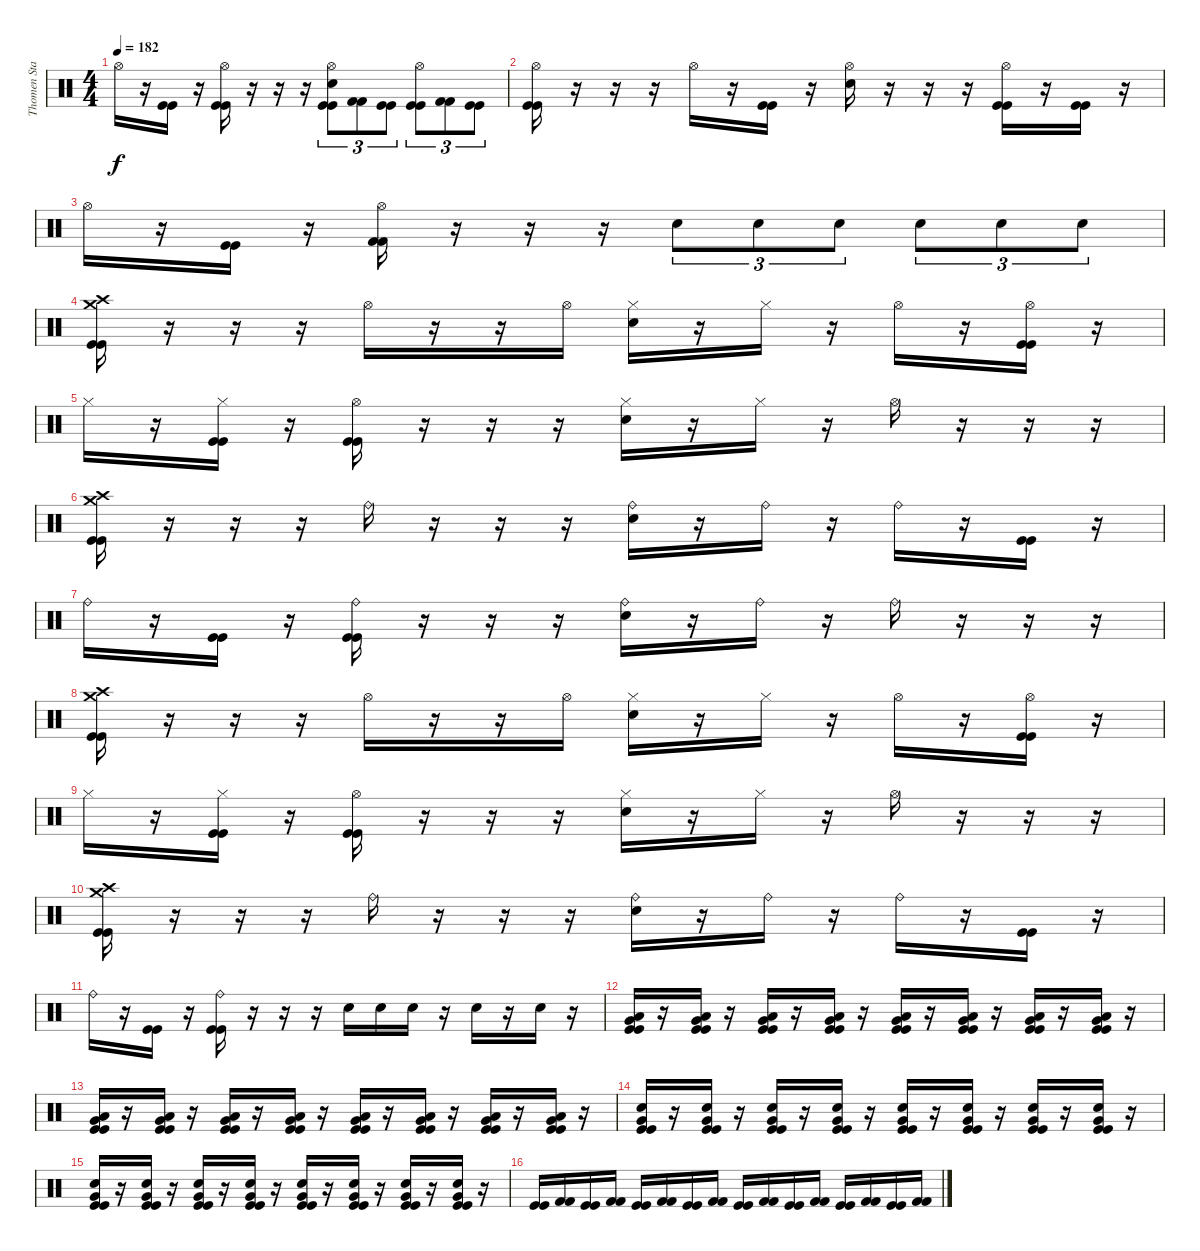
\track ("Thomen Stauch" "Thomen Sta") {instrument percussion}
\staff {score}
\articulation defaults
\ts (4 4)
\tempo 182
\clef neutral
\ks c "Hi-Hat (open)".16{dy f}
r.16 ("Kick (hit)" "Kick (hit)").16 r.16 ("Hi-Hat (open)" "Kick (hit)" "Kick (hit)").16 r.16 r.16 r.16 ("Hi-Hat (open)" "Snare (hit) 2" "Kick (hit)" "Kick (hit)").8{tu (3 2)} ("Kick (hit) 2" "Kick (hit) 2").8{tu (3 2)} ("Kick (hit)" "Kick (hit)").8{tu (3 2)} ("Hi-Hat (open)" "Kick (hit)" "Kick (hit)").8{tu (3 2)} ("Kick (hit) 2" "Kick (hit) 2").8{tu (3 2)} ("Kick (hit)" "Kick (hit)").8{tu (3 2)} |
("Hi-Hat (open)" "Kick (hit)" "Kick (hit)").16 r.16 r.16 r.16 "Hi-Hat (open)".16 r.16 ("Kick (hit)" "Kick (hit)").16 r.16 ("Hi-Hat (open)" "Snare (hit) 2").16 r.16 r.16 r.16 ("Hi-Hat (open)" "Kick (hit)" "Kick (hit)").16 r.16 ("Kick (hit)" "Kick (hit)").16 r.16 |
"Hi-Hat (open)".16 r.16 ("Kick (hit)" "Kick (hit)").16 r.16 ("Hi-Hat (open)" "Kick (hit) 2" "Kick (hit) 2").16 r.16 r.16 r.16 "Snare (hit) 2".8{tu (3 2)} "Snare (hit) 2".8{tu (3 2)} "Snare (hit) 2".8{tu (3 2)} "Snare (hit) 2".8{tu (3 2)} "Snare (hit) 2".8{tu (3 2)} "Snare (hit) 2".8{tu (3 2)} |
("Crash medium (hit)" "Crash high (hit)" "Kick (hit)" "Kick (hit)").16 r.16 r.16 r.16 "Hi-Hat (open)".16 r.16 r.16 "Hi-Hat (open)".16 ("Hi-Hat (closed)" "Snare (hit) 2").16 r.16 "Hi-Hat (closed)".16 r.16 "Hi-Hat (open)".16 r.16 ("Hi-Hat (open)" "Kick (hit)" "Kick (hit)").16 r.16 |
"Hi-Hat (closed)".16 r.16 ("Hi-Hat (closed)" "Kick (hit)" "Kick (hit)").16 r.16 ("Hi-Hat (open)" "Kick (hit)" "Kick (hit)").16 r.16 r.16 r.16 ("Hi-Hat (closed)" "Snare (hit) 2").16 r.16 "Hi-Hat (closed)".16 r.16 "Hi-Hat (open)".16 r.16 r.16 r.16 |
("Crash medium (hit)" "Crash high (hit)" "Kick (hit)" "Kick (hit)").16 r.16 r.16 r.16 "Ride (bell)".16 r.16 r.16 r.16 ("Ride (bell)" "Snare (hit) 2").16 r.16 "Ride (bell)".16 r.16 "Ride (bell)".16 r.16 ("Kick (hit)" "Kick (hit)").16 r.16 |
"Ride (bell)".16 r.16 ("Kick (hit)" "Kick (hit)").16 r.16 ("Ride (bell)" "Kick (hit)" "Kick (hit)").16 r.16 r.16 r.16 ("Ride (bell)" "Snare (hit) 2").16 r.16 "Ride (bell)".16 r.16 "Ride (bell)".16 r.16 r.16 r.16 |
("Crash medium (hit)" "Crash high (hit)" "Kick (hit)" "Kick (hit)").16 r.16 r.16 r.16 "Hi-Hat (open)".16 r.16 r.16 "Hi-Hat (open)".16 ("Hi-Hat (closed)" "Snare (hit) 2").16 r.16 "Hi-Hat (closed)".16 r.16 "Hi-Hat (open)".16 r.16 ("Hi-Hat (open)" "Kick (hit)" "Kick (hit)").16 r.16 |
"Hi-Hat (closed)".16 r.16 ("Hi-Hat (closed)" "Kick (hit)" "Kick (hit)").16 r.16 ("Hi-Hat (open)" "Kick (hit)" "Kick (hit)").16 r.16 r.16 r.16 ("Hi-Hat (closed)" "Snare (hit) 2").16 r.16 "Hi-Hat (closed)".16 r.16 "Hi-Hat (open)".16 r.16 r.16 r.16 |
("Crash medium (hit)" "Crash high (hit)" "Kick (hit)" "Kick (hit)").16 r.16 r.16 r.16 "Ride (bell)".16 r.16 r.16 r.16 ("Ride (bell)" "Snare (hit) 2").16 r.16 "Ride (bell)".16 r.16 "Ride (bell)".16 r.16 ("Kick (hit)" "Kick (hit)").16 r.16 |
"Ride (bell)".16 r.16 ("Kick (hit)" "Kick (hit)").16 r.16 ("Ride (bell)" "Kick (hit)" "Kick (hit)").16 r.16 r.16 r.16 "Snare (hit) 2".16 "Snare (hit) 2".16 "Snare (hit) 2".16 r.16 "Snare (hit) 2".16 r.16 "Snare (hit) 2".16 r.16 |
("Low Floor Tom (hit)" "Very Low Tom (hit)" "Kick (hit)" "Kick (hit)").16 r.16 ("Low Floor Tom (hit)" "Very Low Tom (hit)" "Kick (hit)" "Kick (hit)").16 r.16 ("Low Floor Tom (hit)" "Very Low Tom (hit)" "Kick (hit)" "Kick (hit)").16 r.16 ("Low Floor Tom (hit)" "Very Low Tom (hit)" "Kick (hit)" "Kick (hit)").16 r.16 ("Low Floor Tom (hit)" "Very Low Tom (hit)" "Kick (hit)" "Kick (hit)").16 r.16 ("Low Floor Tom (hit)" "Very Low Tom (hit)" "Kick (hit)" "Kick (hit)").16 r.16 ("Low Floor Tom (hit)" "Very Low Tom (hit)" "Kick (hit)" "Kick (hit)").16 r.16 ("Low Floor Tom (hit)" "Very Low Tom (hit)" "Kick (hit)" "Kick (hit)").16 r.16 |
("Low Floor Tom (hit)" "Very Low Tom (hit)" "Kick (hit)" "Kick (hit)").16 r.16 ("Low Floor Tom (hit)" "Very Low Tom (hit)" "Kick (hit)" "Kick (hit)").16 r.16 ("Low Floor Tom (hit)" "Very Low Tom (hit)" "Kick (hit)" "Kick (hit)").16 r.16 ("Low Floor Tom (hit)" "Very Low Tom (hit)" "Kick (hit)" "Kick (hit)").16 r.16 ("Low Floor Tom (hit)" "Very Low Tom (hit)" "Kick (hit)" "Kick (hit)").16 r.16 ("Low Floor Tom (hit)" "Very Low Tom (hit)" "Kick (hit)" "Kick (hit)").16 r.16 ("Low Floor Tom (hit)" "Very Low Tom (hit)" "Kick (hit)" "Kick (hit)").16 r.16 ("Low Floor Tom (hit)" "Very Low Tom (hit)" "Kick (hit)" "Kick (hit)").16 r.16 |
("Snare (hit) 2" "Very Low Tom (hit)" "Kick (hit)" "Kick (hit)").16 r.16 ("Snare (hit) 2" "Very Low Tom (hit)" "Kick (hit)" "Kick (hit)").16 r.16 ("Snare (hit) 2" "Very Low Tom (hit)" "Kick (hit)" "Kick (hit)").16 r.16 ("Snare (hit) 2" "Very Low Tom (hit)" "Kick (hit)" "Kick (hit)").16 r.16 ("Snare (hit) 2" "Very Low Tom (hit)" "Kick (hit)" "Kick (hit)").16 r.16 ("Snare (hit) 2" "Very Low Tom (hit)" "Kick (hit)" "Kick (hit)").16 r.16 ("Snare (hit) 2" "Very Low Tom (hit)" "Kick (hit)" "Kick (hit)").16 r.16 ("Snare (hit) 2" "Very Low Tom (hit)" "Kick (hit)" "Kick (hit)").16 r.16 |
("Snare (hit) 2" "Very Low Tom (hit)" "Kick (hit)" "Kick (hit)").16 r.16 ("Snare (hit) 2" "Very Low Tom (hit)" "Kick (hit)" "Kick (hit)").16 r.16 ("Snare (hit) 2" "Very Low Tom (hit)" "Kick (hit)" "Kick (hit)").16 r.16 ("Snare (hit) 2" "Very Low Tom (hit)" "Kick (hit)" "Kick (hit)").16 r.16 ("Snare (hit) 2" "Very Low Tom (hit)" "Kick (hit)" "Kick (hit)").16 r.16 ("Snare (hit) 2" "Very Low Tom (hit)" "Kick (hit)" "Kick (hit)").16 r.16 ("Snare (hit) 2" "Very Low Tom (hit)" "Kick (hit)" "Kick (hit)").16 r.16 ("Snare (hit) 2" "Very Low Tom (hit)" "Kick (hit)" "Kick (hit)").16 r.16 |
("Kick (hit)" "Kick (hit)").16 ("Kick (hit) 2" "Kick (hit) 2").16 ("Kick (hit)" "Kick (hit)").16 ("Kick (hit) 2" "Kick (hit) 2").16 ("Kick (hit)" "Kick (hit)").16 ("Kick (hit) 2" "Kick (hit) 2").16 ("Kick (hit)" "Kick (hit)").16 ("Kick (hit) 2" "Kick (hit) 2").16 ("Kick (hit)" "Kick (hit)").16 ("Kick (hit) 2" "Kick (hit) 2").16 ("Kick (hit)" "Kick (hit)").16 ("Kick (hit) 2" "Kick (hit) 2").16 ("Kick (hit)" "Kick (hit)").16 ("Kick (hit) 2" "Kick (hit) 2").16 ("Kick (hit)" "Kick (hit)").16 ("Kick (hit) 2" "Kick (hit) 2").16
